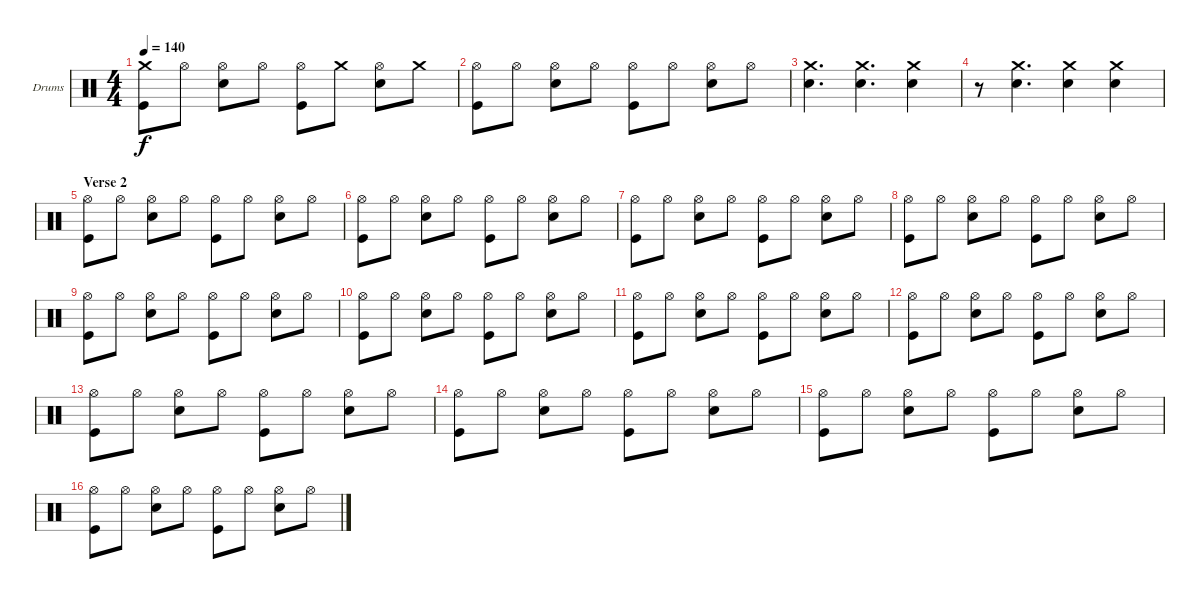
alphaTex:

\bracketExtendMode groupsimilarinstruments
\firstSystemTrackNameOrientation horizontal
\otherSystemsTrackNameOrientation horizontal
\track ("Drumkit" "Drums") {instrument percussion}
\staff {score}
\articulation defaults
\ts (4 4)
\tempo 140
\clef neutral
\ks c
("Crash medium (hit)" "Kick (hit)").8{dy f} "Hi-Hat (open)".8 ("Hi-Hat (open)" "Snare (hit) 2").8 "Hi-Hat (open)".8 ("Hi-Hat (open)" "Kick (hit)").8 "Crash medium (hit)".8 ("Hi-Hat (open)" "Snare (hit) 2").8 "Crash medium (hit)".8 |
("Hi-Hat (open)" "Kick (hit)").8 "Hi-Hat (open)".8 ("Hi-Hat (open)" "Snare (hit) 2").8 "Hi-Hat (open)".8 ("Hi-Hat (open)" "Kick (hit)").8 "Hi-Hat (open)".8 ("Hi-Hat (open)" "Snare (hit) 2").8 "Hi-Hat (open)".8 |
("Crash medium (hit)" "Snare (hit) 2").4{d} ("Crash medium (hit)" "Snare (hit) 2").4{d} ("Crash medium (hit)" "Snare (hit) 2").4 |
r.8 ("Crash medium (hit)" "Snare (hit) 2").4{d} ("Crash medium (hit)" "Snare (hit) 2").4 ("Crash medium (hit)" "Snare (hit) 2").4 |
\section ("" "Verse 2")
("Hi-Hat (open)" "Kick (hit)").8 "Hi-Hat (open)".8 ("Hi-Hat (open)" "Snare (hit) 2").8 "Hi-Hat (open)".8 ("Hi-Hat (open)" "Kick (hit)").8 "Hi-Hat (open)".8 ("Hi-Hat (open)" "Snare (hit) 2").8 "Hi-Hat (open)".8 |
("Hi-Hat (open)" "Kick (hit)").8 "Hi-Hat (open)".8 ("Hi-Hat (open)" "Snare (hit) 2").8 "Hi-Hat (open)".8 ("Hi-Hat (open)" "Kick (hit)").8 "Hi-Hat (open)".8 ("Hi-Hat (open)" "Snare (hit) 2").8 "Hi-Hat (open)".8 |
("Hi-Hat (open)" "Kick (hit)").8 "Hi-Hat (open)".8 ("Hi-Hat (open)" "Snare (hit) 2").8 "Hi-Hat (open)".8 ("Hi-Hat (open)" "Kick (hit)").8 "Hi-Hat (open)".8 ("Hi-Hat (open)" "Snare (hit) 2").8 "Hi-Hat (open)".8 |
("Hi-Hat (open)" "Kick (hit)").8 "Hi-Hat (open)".8 ("Hi-Hat (open)" "Snare (hit) 2").8 "Hi-Hat (open)".8 ("Hi-Hat (open)" "Kick (hit)").8 "Hi-Hat (open)".8 ("Hi-Hat (open)" "Snare (hit) 2").8 "Hi-Hat (open)".8 |
("Hi-Hat (open)" "Kick (hit)").8 "Hi-Hat (open)".8 ("Hi-Hat (open)" "Snare (hit) 2").8 "Hi-Hat (open)".8 ("Hi-Hat (open)" "Kick (hit)").8 "Hi-Hat (open)".8 ("Hi-Hat (open)" "Snare (hit) 2").8 "Hi-Hat (open)".8 |
("Hi-Hat (open)" "Kick (hit)").8 "Hi-Hat (open)".8 ("Hi-Hat (open)" "Snare (hit) 2").8 "Hi-Hat (open)".8 ("Hi-Hat (open)" "Kick (hit)").8 "Hi-Hat (open)".8 ("Hi-Hat (open)" "Snare (hit) 2").8 "Hi-Hat (open)".8 |
("Hi-Hat (open)" "Kick (hit)").8 "Hi-Hat (open)".8 ("Hi-Hat (open)" "Snare (hit) 2").8 "Hi-Hat (open)".8 ("Hi-Hat (open)" "Kick (hit)").8 "Hi-Hat (open)".8 ("Hi-Hat (open)" "Snare (hit) 2").8 "Hi-Hat (open)".8 |
("Hi-Hat (open)" "Kick (hit)").8 "Hi-Hat (open)".8 ("Hi-Hat (open)" "Snare (hit) 2").8 "Hi-Hat (open)".8 ("Hi-Hat (open)" "Kick (hit)").8 "Hi-Hat (open)".8 ("Hi-Hat (open)" "Snare (hit) 2").8 "Hi-Hat (open)".8 |
("Hi-Hat (open)" "Kick (hit)").8 "Hi-Hat (open)".8 ("Hi-Hat (open)" "Snare (hit) 2").8 "Hi-Hat (open)".8 ("Hi-Hat (open)" "Kick (hit)").8 "Hi-Hat (open)".8 ("Hi-Hat (open)" "Snare (hit) 2").8 "Hi-Hat (open)".8 |
("Hi-Hat (open)" "Kick (hit)").8 "Hi-Hat (open)".8 ("Hi-Hat (open)" "Snare (hit) 2").8 "Hi-Hat (open)".8 ("Hi-Hat (open)" "Kick (hit)").8 "Hi-Hat (open)".8 ("Hi-Hat (open)" "Snare (hit) 2").8 "Hi-Hat (open)".8 |
("Hi-Hat (open)" "Kick (hit)").8 "Hi-Hat (open)".8 ("Hi-Hat (open)" "Snare (hit) 2").8 "Hi-Hat (open)".8 ("Hi-Hat (open)" "Kick (hit)").8 "Hi-Hat (open)".8 ("Hi-Hat (open)" "Snare (hit) 2").8 "Hi-Hat (open)".8 |
("Hi-Hat (open)" "Kick (hit)").8 "Hi-Hat (open)".8 ("Hi-Hat (open)" "Snare (hit) 2").8 "Hi-Hat (open)".8 ("Hi-Hat (open)" "Kick (hit)").8 "Hi-Hat (open)".8 ("Hi-Hat (open)" "Snare (hit) 2").8 "Hi-Hat (open)".8
